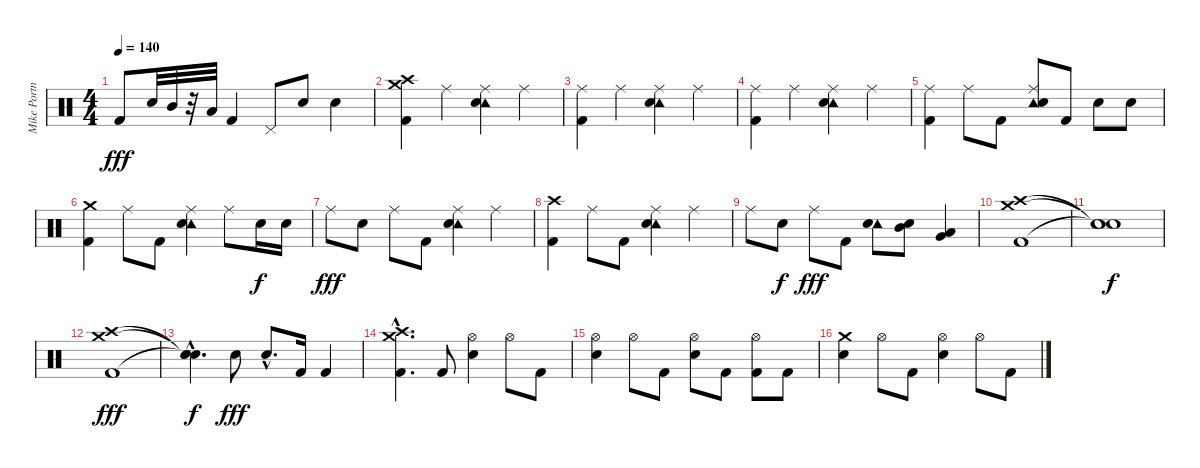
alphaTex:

\track ("Mike Portnoy - Drum" "Mike Portn") {instrument percussion}
\staff {score}
\articulation defaults
\ts (4 4)
\tempo 140
\clef neutral
\ks c "Kick (hit) 2".8{dy fff} "Snare (hit) 2".32 "Mid Tom (hit)".32
r.32 "Low Tom (hit)".32 "Kick (hit) 2".4 "Pedal Hi-Hat (hit)".8 "Snare (hit) 2".8 "Snare (hit) 2".4 |
("Crash high (hit)" "Crash medium (hit)" "Kick (hit) 2").4 "Ride (middle)".4 ("Tambourine (hit)" "Ride (middle)" "Snare (hit) 2").4 "Ride (middle)".4 |
("Ride (middle)" "Kick (hit) 2").4 "Ride (middle)".4 ("Tambourine (hit)" "Ride (middle)" "Snare (hit) 2").4 "Ride (middle)".4 |
("Ride (middle)" "Kick (hit) 2").4 "Ride (middle)".4 ("Tambourine (hit)" "Ride (middle)" "Snare (hit) 2").4 "Ride (middle)".4 |
("Ride (middle)" "Kick (hit) 2").4 "Ride (middle)".8 "Kick (hit) 2".8 ("Tambourine (hit)" "Ride (middle)" "Snare (hit) 2").8 "Kick (hit) 2".8 "Snare (hit) 2".8 "Snare (hit) 2".8 |
("Crash medium (hit)" "Kick (hit) 2").4 "Ride (middle)".8 "Kick (hit) 2".8 ("Tambourine (hit)" "Ride (middle)" "Snare (hit) 2").4 "Ride (middle)".8 "Snare (hit) 2".16{dy f} "Snare (hit) 2".16 |
"Ride (middle)".8{dy fff} "Snare (hit) 2".8 "Ride (middle)".8 "Kick (hit) 2".8 ("Tambourine (hit)" "Ride (middle)" "Snare (hit) 2").4 "Ride (middle)".4 |
("Crash high (hit)" "Kick (hit) 2").4 "Ride (middle)".8 "Kick (hit) 2".8 ("Tambourine (hit)" "Ride (middle)" "Snare (hit) 2").4 "Ride (middle)".4 |
"Ride (middle)".8 "Snare (hit) 2".8{dy f} "Ride (middle)".8{dy fff} "Kick (hit) 2".8 ("Tambourine (hit)" "Snare (hit) 2").8 ("Mid Tom (hit)" "Snare (hit) 2").8 ("Very Low Tom (hit)" "Low Floor Tom (hit)").4 |
("Crash high (hit)" "Crash medium (hit)" "Kick (hit) 2").1 |
("Snare (hit)"{t} "Snare (hit)"{t} "Snare (hit)"{t}).1{dy f} |
("Crash high (hit)" "Crash medium (hit)" "Kick (hit) 2").1{dy fff} |
("Snare (hit)"{hac t} "Snare (hit)"{hac t} "Snare (hit)"{hac t}).4{d dy f} "Snare (hit) 2".8{dy fff} "Snare (hit) 2"{hac}.8{d} "Kick (hit) 2".16 "Kick (hit) 2".4 |
("Crash high (hit)"{hac} "Crash medium (hit)"{hac} "Kick (hit) 2"{hac}).4{d} "Kick (hit) 2".8 ("Hi-Hat (open)" "Snare (hit) 2").4 "Hi-Hat (open)".8 "Kick (hit) 2".8 |
("Hi-Hat (open)" "Snare (hit) 2").4 "Hi-Hat (open)".8 "Kick (hit) 2".8 ("Hi-Hat (open)" "Snare (hit) 2").8 "Kick (hit) 2".8 ("Hi-Hat (open)" "Kick (hit) 2").8 "Kick (hit) 2".8 |
("Crash medium (hit)" "Snare (hit) 2").4 "Hi-Hat (open)".8 "Kick (hit) 2".8 ("Hi-Hat (open)" "Snare (hit) 2").4 "Hi-Hat (open)".8 "Kick (hit) 2".8
